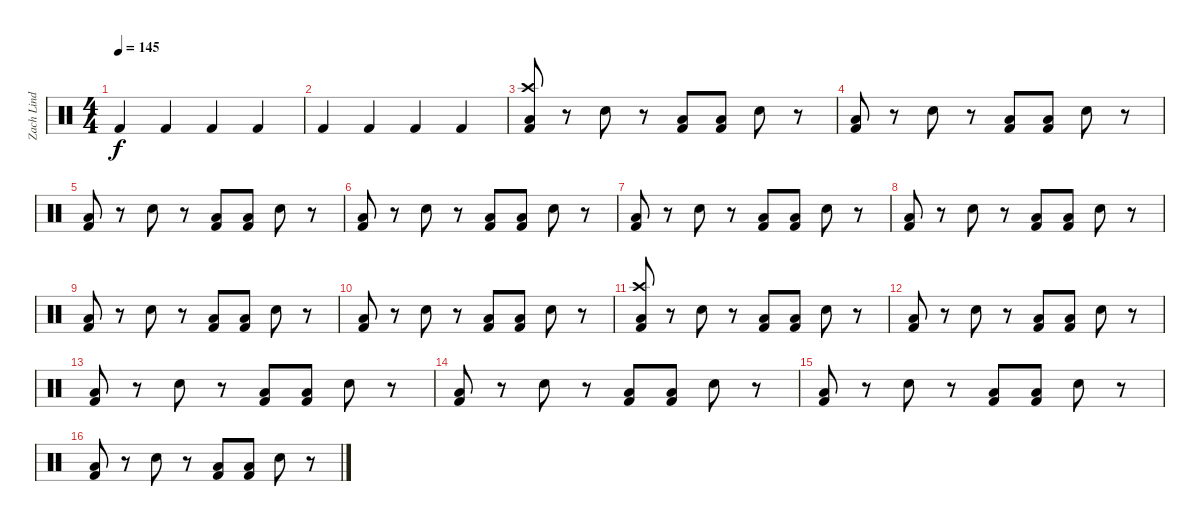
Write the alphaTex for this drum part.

\track ("Zach Lind" "Zach Lind") {instrument percussion}
\staff {score}
\articulation defaults
\ts (4 4)
\tempo 145
\clef neutral
\ks c "Kick (hit) 2".4{dy f} "Kick (hit) 2".4 "Kick (hit) 2".4 "Kick (hit) 2".4
|
"Kick (hit) 2".4 "Kick (hit) 2".4 "Kick (hit) 2".4 "Kick (hit) 2".4 |
("Crash high (hit)" "Low Floor Tom (hit)" "Kick (hit) 2").8 r.8 "Snare (hit) 2".8 r.8 ("Low Floor Tom (hit)" "Kick (hit) 2").8 ("Low Floor Tom (hit)" "Kick (hit) 2").8 "Snare (hit) 2".8 r.8 |
("Low Floor Tom (hit)" "Kick (hit) 2").8 r.8 "Snare (hit) 2".8 r.8 ("Low Floor Tom (hit)" "Kick (hit) 2").8 ("Low Floor Tom (hit)" "Kick (hit) 2").8 "Snare (hit) 2".8 r.8 |
("Low Floor Tom (hit)" "Kick (hit) 2").8 r.8 "Snare (hit) 2".8 r.8 ("Low Floor Tom (hit)" "Kick (hit) 2").8 ("Low Floor Tom (hit)" "Kick (hit) 2").8 "Snare (hit) 2".8 r.8 |
("Low Floor Tom (hit)" "Kick (hit) 2").8 r.8 "Snare (hit) 2".8 r.8 ("Low Floor Tom (hit)" "Kick (hit) 2").8 ("Low Floor Tom (hit)" "Kick (hit) 2").8 "Snare (hit) 2".8 r.8 |
("Low Floor Tom (hit)" "Kick (hit) 2").8 r.8 "Snare (hit) 2".8 r.8 ("Low Floor Tom (hit)" "Kick (hit) 2").8 ("Low Floor Tom (hit)" "Kick (hit) 2").8 "Snare (hit) 2".8 r.8 |
("Low Floor Tom (hit)" "Kick (hit) 2").8 r.8 "Snare (hit) 2".8 r.8 ("Low Floor Tom (hit)" "Kick (hit) 2").8 ("Low Floor Tom (hit)" "Kick (hit) 2").8 "Snare (hit) 2".8 r.8 |
("Low Floor Tom (hit)" "Kick (hit) 2").8 r.8 "Snare (hit) 2".8 r.8 ("Low Floor Tom (hit)" "Kick (hit) 2").8 ("Low Floor Tom (hit)" "Kick (hit) 2").8 "Snare (hit) 2".8 r.8 |
("Low Floor Tom (hit)" "Kick (hit) 2").8 r.8 "Snare (hit) 2".8 r.8 ("Low Floor Tom (hit)" "Kick (hit) 2").8 ("Low Floor Tom (hit)" "Kick (hit) 2").8 "Snare (hit) 2".8 r.8 |
("Crash high (hit)" "Low Floor Tom (hit)" "Kick (hit) 2").8 r.8 "Snare (hit) 2".8 r.8 ("Low Floor Tom (hit)" "Kick (hit) 2").8 ("Low Floor Tom (hit)" "Kick (hit) 2").8 "Snare (hit) 2".8 r.8 |
("Low Floor Tom (hit)" "Kick (hit) 2").8 r.8 "Snare (hit) 2".8 r.8 ("Low Floor Tom (hit)" "Kick (hit) 2").8 ("Low Floor Tom (hit)" "Kick (hit) 2").8 "Snare (hit) 2".8 r.8 |
("Low Floor Tom (hit)" "Kick (hit) 2").8 r.8 "Snare (hit) 2".8 r.8 ("Low Floor Tom (hit)" "Kick (hit) 2").8 ("Low Floor Tom (hit)" "Kick (hit) 2").8 "Snare (hit) 2".8 r.8 |
("Low Floor Tom (hit)" "Kick (hit) 2").8 r.8 "Snare (hit) 2".8 r.8 ("Low Floor Tom (hit)" "Kick (hit) 2").8 ("Low Floor Tom (hit)" "Kick (hit) 2").8 "Snare (hit) 2".8 r.8 |
("Low Floor Tom (hit)" "Kick (hit) 2").8 r.8 "Snare (hit) 2".8 r.8 ("Low Floor Tom (hit)" "Kick (hit) 2").8 ("Low Floor Tom (hit)" "Kick (hit) 2").8 "Snare (hit) 2".8 r.8 |
("Low Floor Tom (hit)" "Kick (hit) 2").8 r.8 "Snare (hit) 2".8 r.8 ("Low Floor Tom (hit)" "Kick (hit) 2").8 ("Low Floor Tom (hit)" "Kick (hit) 2").8 "Snare (hit) 2".8 r.8
